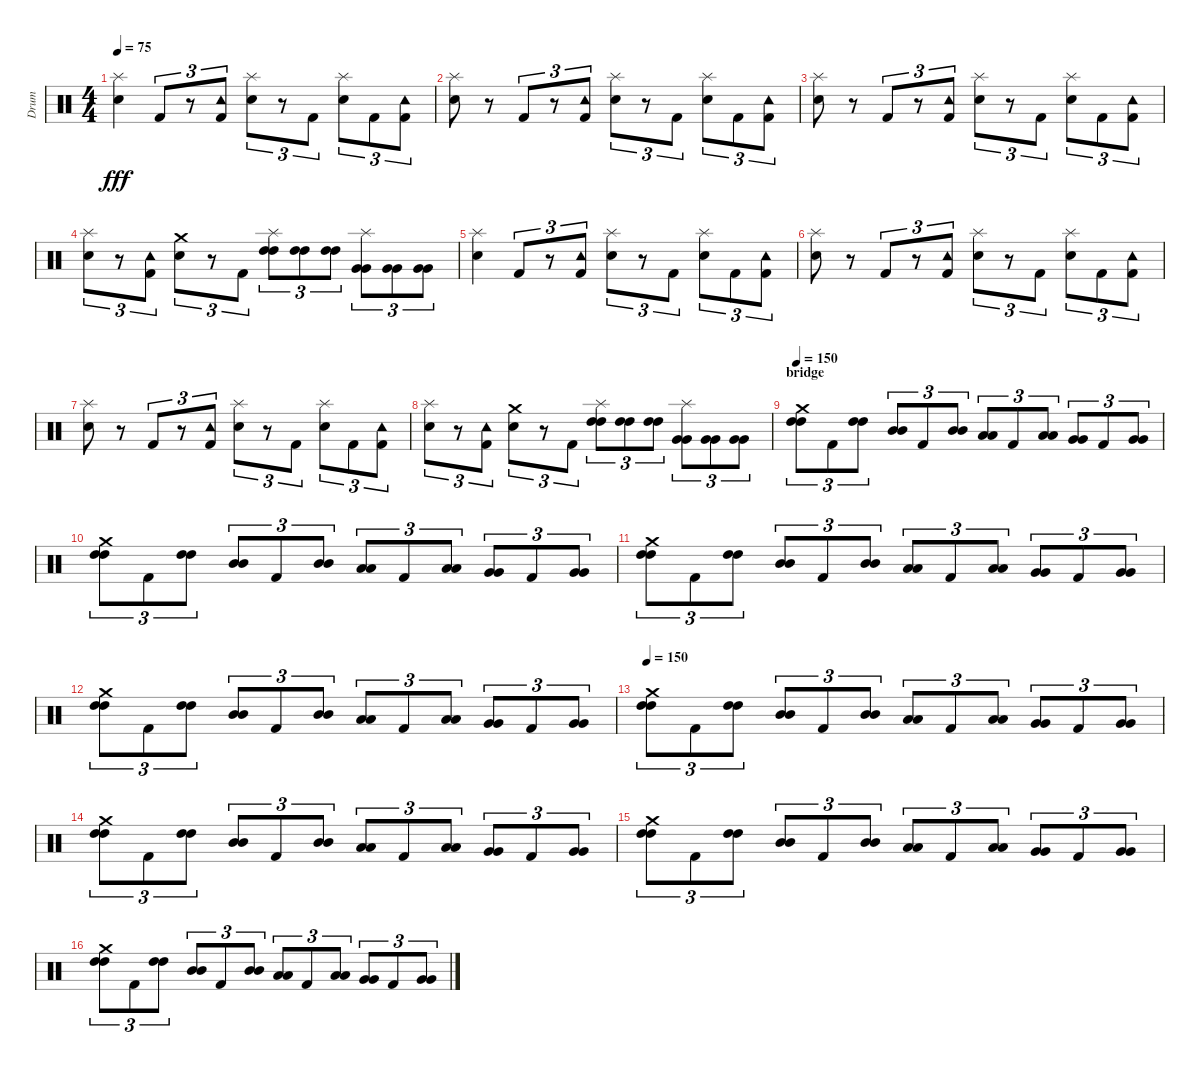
\track ("Drum" "Drum") {instrument percussion}
\staff {score}
\articulation defaults
\ts (4 4)
\tempo 75
\clef neutral
\ks c
("Electric Snare (hit)" "Splash (hit)").4{dy fff balance 8} "Kick (hit) 2".8{tu (3 2)} r.8{tu (3 2)} ("Kick (hit) 2" "Tambourine (hit)").8{tu (3 2)} ("Electric Snare (hit)" "Splash (hit)").8{tu (3 2)} r.8{tu (3 2)} "Kick (hit) 2".8{tu (3 2)} ("Splash (hit)" "Electric Snare (hit)").8{tu (3 2)} "Kick (hit) 2".8{tu (3 2)} ("Kick (hit) 2" "Tambourine (hit)").8{tu (3 2)} |
("Electric Snare (hit)" "Splash (hit)").8 r.8 "Kick (hit) 2".8{tu (3 2)} r.8{tu (3 2)} ("Kick (hit) 2" "Tambourine (hit)").8{tu (3 2)} ("Electric Snare (hit)" "Splash (hit)").8{tu (3 2)} r.8{tu (3 2)} "Kick (hit) 2".8{tu (3 2)} ("Splash (hit)" "Electric Snare (hit)").8{tu (3 2)} "Kick (hit) 2".8{tu (3 2)} ("Kick (hit) 2" "Tambourine (hit)").8{tu (3 2)} |
("Electric Snare (hit)" "Splash (hit)").8 r.8 "Kick (hit) 2".8{tu (3 2)} r.8{tu (3 2)} ("Kick (hit) 2" "Tambourine (hit)").8{tu (3 2)} ("Electric Snare (hit)" "Splash (hit)").8{tu (3 2)} r.8{tu (3 2)} "Kick (hit) 2".8{tu (3 2)} ("Splash (hit)" "Electric Snare (hit)").8{tu (3 2)} "Kick (hit) 2".8{tu (3 2)} ("Kick (hit) 2" "Tambourine (hit)").8{tu (3 2)} |
("Splash (hit)" "Electric Snare (hit)").8{tu (3 2)} r.8{tu (3 2)} ("Kick (hit) 2" "Tambourine (hit)").8{tu (3 2)} ("Crash medium (hit)" "Electric Snare (hit)").8{tu (3 2)} r.8{tu (3 2)} "Kick (hit) 2".8{tu (3 2)} ("Splash (hit)" "High Tom (hit)" "High Tom (hit)").8{tu (3 2) balance 14} ("High Tom (hit)" "High Tom (hit)").8{tu (3 2)} ("High Tom (hit)" "High Tom (hit)").8{tu (3 2)} ("Splash (hit)" "Very Low Tom (hit)" "Very Low Tom (hit)").8{tu (3 2) balance 2} ("Very Low Tom (hit)" "Very Low Tom (hit)").8{tu (3 2)} ("Very Low Tom (hit)" "Very Low Tom (hit)").8{tu (3 2)} |
("Electric Snare (hit)" "Splash (hit)").4{balance 8} "Kick (hit) 2".8{tu (3 2)} r.8{tu (3 2)} ("Kick (hit) 2" "Tambourine (hit)").8{tu (3 2)} ("Electric Snare (hit)" "Splash (hit)").8{tu (3 2)} r.8{tu (3 2)} "Kick (hit) 2".8{tu (3 2)} ("Splash (hit)" "Electric Snare (hit)").8{tu (3 2)} "Kick (hit) 2".8{tu (3 2)} ("Kick (hit) 2" "Tambourine (hit)").8{tu (3 2)} |
("Electric Snare (hit)" "Splash (hit)").8 r.8 "Kick (hit) 2".8{tu (3 2)} r.8{tu (3 2)} ("Kick (hit) 2" "Tambourine (hit)").8{tu (3 2)} ("Electric Snare (hit)" "Splash (hit)").8{tu (3 2)} r.8{tu (3 2)} "Kick (hit) 2".8{tu (3 2)} ("Splash (hit)" "Electric Snare (hit)").8{tu (3 2)} "Kick (hit) 2".8{tu (3 2)} ("Kick (hit) 2" "Tambourine (hit)").8{tu (3 2)} |
("Electric Snare (hit)" "Splash (hit)").8 r.8 "Kick (hit) 2".8{tu (3 2)} r.8{tu (3 2)} ("Kick (hit) 2" "Tambourine (hit)").8{tu (3 2)} ("Electric Snare (hit)" "Splash (hit)").8{tu (3 2)} r.8{tu (3 2)} "Kick (hit) 2".8{tu (3 2)} ("Splash (hit)" "Electric Snare (hit)").8{tu (3 2)} "Kick (hit) 2".8{tu (3 2)} ("Kick (hit) 2" "Tambourine (hit)").8{tu (3 2)} |
("Splash (hit)" "Electric Snare (hit)").8{tu (3 2)} r.8{tu (3 2)} ("Kick (hit) 2" "Tambourine (hit)").8{tu (3 2)} ("Crash medium (hit)" "Electric Snare (hit)").8{tu (3 2)} r.8{tu (3 2)} "Kick (hit) 2".8{tu (3 2)} ("Splash (hit)" "High Tom (hit)" "High Tom (hit)").8{tu (3 2) balance 14} ("High Tom (hit)" "High Tom (hit)").8{tu (3 2)} ("High Tom (hit)" "High Tom (hit)").8{tu (3 2)} ("Splash (hit)" "Very Low Tom (hit)" "Very Low Tom (hit)").8{tu (3 2) balance 2} ("Very Low Tom (hit)" "Very Low Tom (hit)").8{tu (3 2)} ("Very Low Tom (hit)" "Very Low Tom (hit)").8{tu (3 2)} |
\section ("" "bridge")
\tempo 150
("Crash medium (hit)" "High Tom (hit)" "High Tom (hit)").8{tu (3 2)} "Kick (hit) 2".8{tu (3 2)} ("High Tom (hit)" "High Tom (hit)").8{tu (3 2)} ("Mid Tom (hit)" "Mid Tom (hit)").8{tu (3 2)} "Kick (hit) 2".8{tu (3 2)} ("Mid Tom (hit)" "Mid Tom (hit)").8{tu (3 2)} ("Low Tom (hit)" "Low Tom (hit)").8{tu (3 2)} "Kick (hit) 2".8{tu (3 2)} ("Low Tom (hit)" "Low Tom (hit)").8{tu (3 2)} ("Very Low Tom (hit)" "Very Low Tom (hit)").8{tu (3 2)} "Kick (hit) 2".8{tu (3 2)} ("Very Low Tom (hit)" "Very Low Tom (hit)").8{tu (3 2)} |
("Crash medium (hit)" "High Tom (hit)" "High Tom (hit)").8{tu (3 2)} "Kick (hit) 2".8{tu (3 2)} ("High Tom (hit)" "High Tom (hit)").8{tu (3 2)} ("Mid Tom (hit)" "Mid Tom (hit)").8{tu (3 2)} "Kick (hit) 2".8{tu (3 2)} ("Mid Tom (hit)" "Mid Tom (hit)").8{tu (3 2)} ("Low Tom (hit)" "Low Tom (hit)").8{tu (3 2)} "Kick (hit) 2".8{tu (3 2)} ("Low Tom (hit)" "Low Tom (hit)").8{tu (3 2)} ("Very Low Tom (hit)" "Very Low Tom (hit)").8{tu (3 2)} "Kick (hit) 2".8{tu (3 2)} ("Very Low Tom (hit)" "Very Low Tom (hit)").8{tu (3 2)} |
("Crash medium (hit)" "High Tom (hit)" "High Tom (hit)").8{tu (3 2)} "Kick (hit) 2".8{tu (3 2)} ("High Tom (hit)" "High Tom (hit)").8{tu (3 2)} ("Mid Tom (hit)" "Mid Tom (hit)").8{tu (3 2)} "Kick (hit) 2".8{tu (3 2)} ("Mid Tom (hit)" "Mid Tom (hit)").8{tu (3 2)} ("Low Tom (hit)" "Low Tom (hit)").8{tu (3 2)} "Kick (hit) 2".8{tu (3 2)} ("Low Tom (hit)" "Low Tom (hit)").8{tu (3 2)} ("Very Low Tom (hit)" "Very Low Tom (hit)").8{tu (3 2)} "Kick (hit) 2".8{tu (3 2)} ("Very Low Tom (hit)" "Very Low Tom (hit)").8{tu (3 2)} |
("Crash medium (hit)" "High Tom (hit)" "High Tom (hit)").8{tu (3 2)} "Kick (hit) 2".8{tu (3 2)} ("High Tom (hit)" "High Tom (hit)").8{tu (3 2)} ("Mid Tom (hit)" "Mid Tom (hit)").8{tu (3 2)} "Kick (hit) 2".8{tu (3 2)} ("Mid Tom (hit)" "Mid Tom (hit)").8{tu (3 2)} ("Low Tom (hit)" "Low Tom (hit)").8{tu (3 2)} "Kick (hit) 2".8{tu (3 2)} ("Low Tom (hit)" "Low Tom (hit)").8{tu (3 2)} ("Very Low Tom (hit)" "Very Low Tom (hit)").8{tu (3 2)} "Kick (hit) 2".8{tu (3 2)} ("Very Low Tom (hit)" "Very Low Tom (hit)").8{tu (3 2)} |
\tempo 150
("Crash medium (hit)" "High Tom (hit)" "High Tom (hit)").8{tu (3 2)} "Kick (hit) 2".8{tu (3 2)} ("High Tom (hit)" "High Tom (hit)").8{tu (3 2)} ("Mid Tom (hit)" "Mid Tom (hit)").8{tu (3 2)} "Kick (hit) 2".8{tu (3 2)} ("Mid Tom (hit)" "Mid Tom (hit)").8{tu (3 2)} ("Low Tom (hit)" "Low Tom (hit)").8{tu (3 2)} "Kick (hit) 2".8{tu (3 2)} ("Low Tom (hit)" "Low Tom (hit)").8{tu (3 2)} ("Very Low Tom (hit)" "Very Low Tom (hit)").8{tu (3 2)} "Kick (hit) 2".8{tu (3 2)} ("Very Low Tom (hit)" "Very Low Tom (hit)").8{tu (3 2)} |
("Crash medium (hit)" "High Tom (hit)" "High Tom (hit)").8{tu (3 2)} "Kick (hit) 2".8{tu (3 2)} ("High Tom (hit)" "High Tom (hit)").8{tu (3 2)} ("Mid Tom (hit)" "Mid Tom (hit)").8{tu (3 2)} "Kick (hit) 2".8{tu (3 2)} ("Mid Tom (hit)" "Mid Tom (hit)").8{tu (3 2)} ("Low Tom (hit)" "Low Tom (hit)").8{tu (3 2)} "Kick (hit) 2".8{tu (3 2)} ("Low Tom (hit)" "Low Tom (hit)").8{tu (3 2)} ("Very Low Tom (hit)" "Very Low Tom (hit)").8{tu (3 2)} "Kick (hit) 2".8{tu (3 2)} ("Very Low Tom (hit)" "Very Low Tom (hit)").8{tu (3 2)} |
("Crash medium (hit)" "High Tom (hit)" "High Tom (hit)").8{tu (3 2)} "Kick (hit) 2".8{tu (3 2)} ("High Tom (hit)" "High Tom (hit)").8{tu (3 2)} ("Mid Tom (hit)" "Mid Tom (hit)").8{tu (3 2)} "Kick (hit) 2".8{tu (3 2)} ("Mid Tom (hit)" "Mid Tom (hit)").8{tu (3 2)} ("Low Tom (hit)" "Low Tom (hit)").8{tu (3 2)} "Kick (hit) 2".8{tu (3 2)} ("Low Tom (hit)" "Low Tom (hit)").8{tu (3 2)} ("Very Low Tom (hit)" "Very Low Tom (hit)").8{tu (3 2)} "Kick (hit) 2".8{tu (3 2)} ("Very Low Tom (hit)" "Very Low Tom (hit)").8{tu (3 2)} |
("Crash medium (hit)" "High Tom (hit)" "High Tom (hit)").8{tu (3 2)} "Kick (hit) 2".8{tu (3 2)} ("High Tom (hit)" "High Tom (hit)").8{tu (3 2)} ("Mid Tom (hit)" "Mid Tom (hit)").8{tu (3 2)} "Kick (hit) 2".8{tu (3 2)} ("Mid Tom (hit)" "Mid Tom (hit)").8{tu (3 2)} ("Low Tom (hit)" "Low Tom (hit)").8{tu (3 2)} "Kick (hit) 2".8{tu (3 2)} ("Low Tom (hit)" "Low Tom (hit)").8{tu (3 2)} ("Very Low Tom (hit)" "Very Low Tom (hit)").8{tu (3 2)} "Kick (hit) 2".8{tu (3 2)} ("Very Low Tom (hit)" "Very Low Tom (hit)").8{tu (3 2)}
